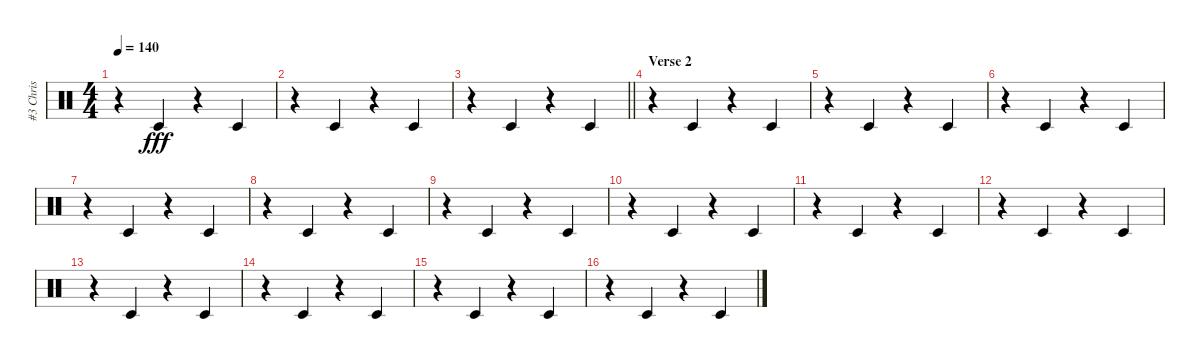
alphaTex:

\track ("#3 Chris" "#3 Chris") {solo instrument percussion}
\staff {score}
\articulation defaults
\ts (4 4)
\tempo 140
\clef neutral
\ks c
r.4{dy fff} "Timbale low (hit)".4 r.4 "Timbale low (hit)".4 |
r.4 "Timbale low (hit)".4 r.4 "Timbale low (hit)".4 |
\barLineRight lightlight
r.4 "Timbale low (hit)".4 r.4 "Timbale low (hit)".4 |
\section ("" "Verse 2")
r.4 "Timbale low (hit)".4 r.4 "Timbale low (hit)".4 |
r.4 "Timbale low (hit)".4 r.4 "Timbale low (hit)".4 |
r.4 "Timbale low (hit)".4 r.4 "Timbale low (hit)".4 |
r.4 "Timbale low (hit)".4 r.4 "Timbale low (hit)".4 |
r.4 "Timbale low (hit)".4 r.4 "Timbale low (hit)".4 |
r.4 "Timbale low (hit)".4 r.4 "Timbale low (hit)".4 |
r.4 "Timbale low (hit)".4 r.4 "Timbale low (hit)".4 |
r.4 "Timbale low (hit)".4 r.4 "Timbale low (hit)".4 |
r.4 "Timbale low (hit)".4 r.4 "Timbale low (hit)".4 |
r.4 "Timbale low (hit)".4 r.4 "Timbale low (hit)".4 |
r.4 "Timbale low (hit)".4 r.4 "Timbale low (hit)".4 |
r.4 "Timbale low (hit)".4 r.4 "Timbale low (hit)".4 |
r.4 "Timbale low (hit)".4 r.4 "Timbale low (hit)".4
